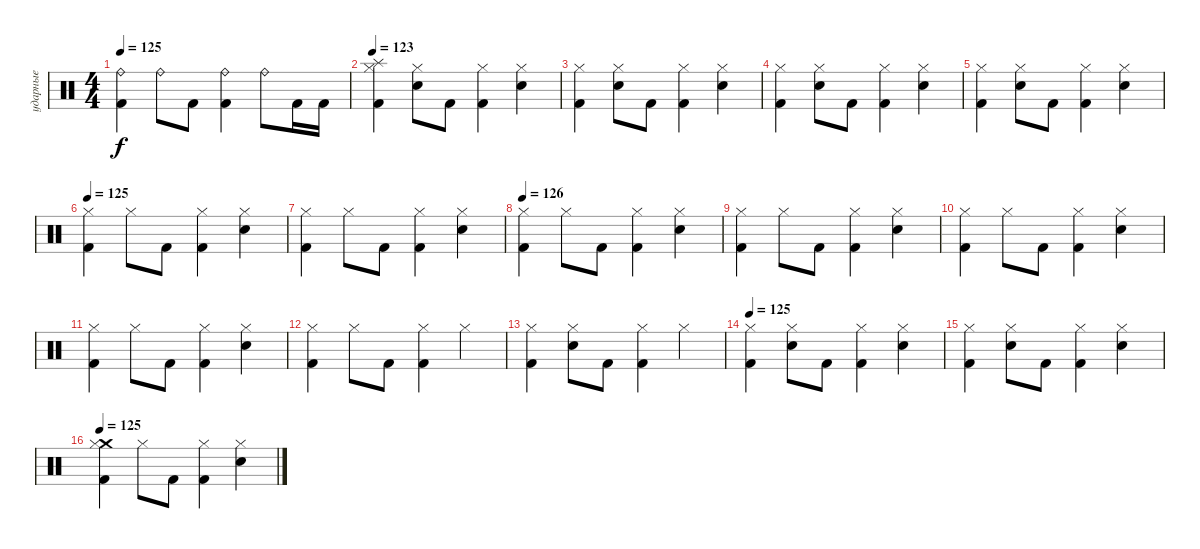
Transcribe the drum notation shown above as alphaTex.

\track ("ударные" "ударные") {instrument percussion}
\staff {score}
\articulation defaults
\ts (4 4)
\tempo 125
\clef neutral
\ks c
("Ride (bell)" "Kick (hit) 2").4{dy f} "Ride (bell)".8 "Kick (hit) 2".8 ("Ride (bell)" "Kick (hit) 2").4 "Ride (bell)".8 "Kick (hit) 2".16 "Kick (hit) 2".16 |
\tempo 123
("Hi-Hat (closed)" "Splash (hit)" "Kick (hit) 2").4 ("Electric Snare (hit)" "Hi-Hat (closed)").8 "Kick (hit) 2".8 ("Hi-Hat (closed)" "Kick (hit) 2").4 ("Electric Snare (hit)" "Hi-Hat (closed)").4 |
("Hi-Hat (closed)" "Kick (hit) 2").4 ("Hi-Hat (closed)" "Electric Snare (hit)").8 "Kick (hit) 2".8 ("Hi-Hat (closed)" "Kick (hit) 2").4 ("Hi-Hat (closed)" "Electric Snare (hit)").4 |
("Hi-Hat (closed)" "Kick (hit) 2").4 ("Hi-Hat (closed)" "Electric Snare (hit)").8 "Kick (hit) 2".8 ("Hi-Hat (closed)" "Kick (hit) 2").4 ("Hi-Hat (closed)" "Electric Snare (hit)").4 |
("Hi-Hat (closed)" "Kick (hit) 2").4 ("Hi-Hat (closed)" "Electric Snare (hit)").8 "Kick (hit) 2".8 ("Hi-Hat (closed)" "Kick (hit) 2").4 ("Hi-Hat (closed)" "Electric Snare (hit)").4 |
\tempo 125
("Hi-Hat (closed)" "Kick (hit) 2").4 "Hi-Hat (closed)".8 "Kick (hit) 2".8 ("Hi-Hat (closed)" "Kick (hit) 2").4 ("Hi-Hat (closed)" "Electric Snare (hit)").4 |
("Hi-Hat (closed)" "Kick (hit) 2").4 "Hi-Hat (closed)".8 "Kick (hit) 2".8 ("Hi-Hat (closed)" "Kick (hit) 2").4 ("Hi-Hat (closed)" "Electric Snare (hit)").4 |
\tempo 126
("Hi-Hat (closed)" "Kick (hit) 2").4 "Hi-Hat (closed)".8 "Kick (hit) 2".8 ("Hi-Hat (closed)" "Kick (hit) 2").4 ("Hi-Hat (closed)" "Electric Snare (hit)").4 |
("Hi-Hat (closed)" "Kick (hit) 2").4 "Hi-Hat (closed)".8 "Kick (hit) 2".8 ("Hi-Hat (closed)" "Kick (hit) 2").4 ("Hi-Hat (closed)" "Electric Snare (hit)").4 |
("Hi-Hat (closed)" "Kick (hit) 2").4 "Hi-Hat (closed)".8 "Kick (hit) 2".8 ("Hi-Hat (closed)" "Kick (hit) 2").4 ("Hi-Hat (closed)" "Electric Snare (hit)").4 |
("Hi-Hat (closed)" "Kick (hit) 2").4 "Hi-Hat (closed)".8 "Kick (hit) 2".8 ("Hi-Hat (closed)" "Kick (hit) 2").4 ("Hi-Hat (closed)" "Electric Snare (hit)").4 |
("Hi-Hat (closed)" "Kick (hit) 2").4 "Hi-Hat (closed)".8 "Kick (hit) 2".8 ("Hi-Hat (closed)" "Kick (hit) 2").4 "Hi-Hat (closed)".4 |
("Hi-Hat (closed)" "Kick (hit) 2").4 ("Hi-Hat (closed)" "Electric Snare (hit)").8 "Kick (hit) 2".8 ("Hi-Hat (closed)" "Kick (hit) 2").4 "Hi-Hat (closed)".4 |
\tempo 125
("Hi-Hat (closed)" "Kick (hit) 2").4 ("Hi-Hat (closed)" "Electric Snare (hit)").8 "Kick (hit) 2".8 ("Hi-Hat (closed)" "Kick (hit) 2").4 ("Hi-Hat (closed)" "Electric Snare (hit)").4 |
("Hi-Hat (closed)" "Kick (hit) 2").4 ("Hi-Hat (closed)" "Electric Snare (hit)").8 "Kick (hit) 2".8 ("Hi-Hat (closed)" "Kick (hit) 2").4 ("Hi-Hat (closed)" "Electric Snare (hit)").4 |
\tempo 125
("Crash medium (hit)" "Hi-Hat (closed)" "Kick (hit) 2").4 "Hi-Hat (closed)".8 "Kick (hit) 2".8 ("Hi-Hat (closed)" "Kick (hit) 2").4 ("Hi-Hat (closed)" "Electric Snare (hit)").4
